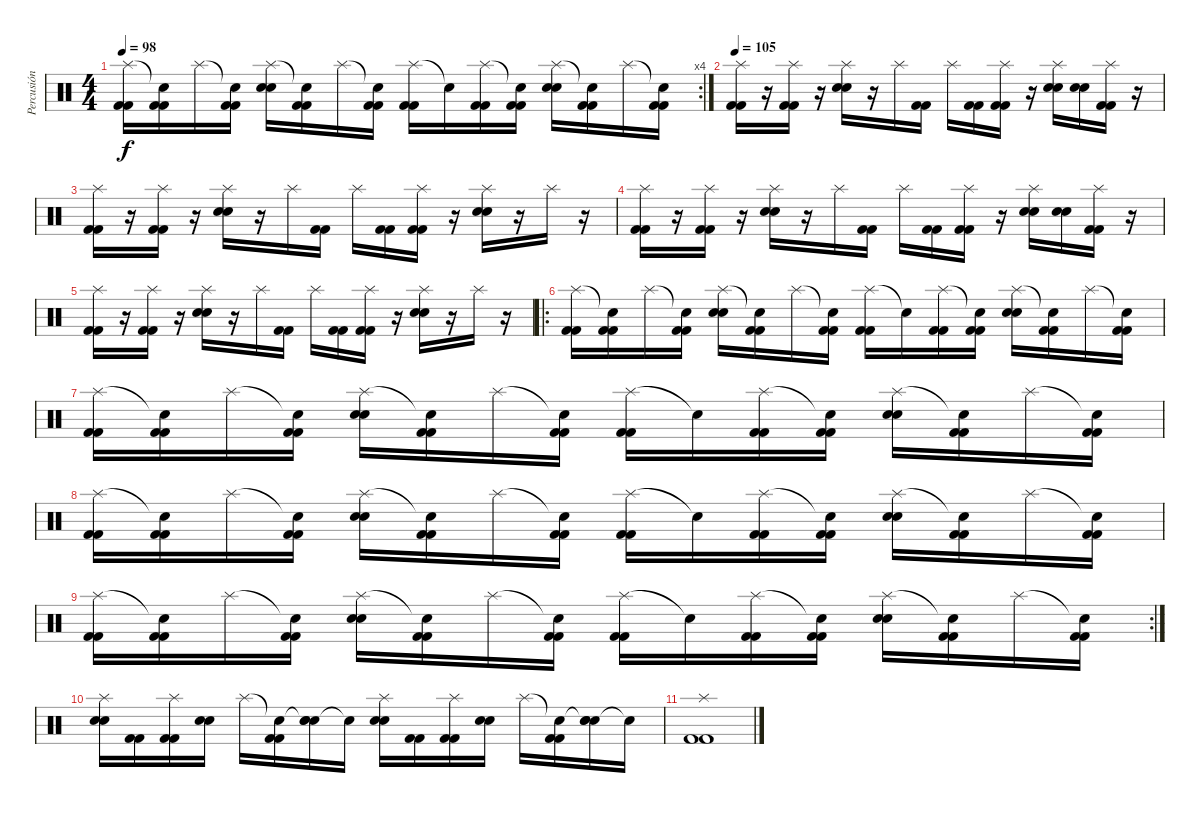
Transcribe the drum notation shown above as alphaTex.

\track ("Percusión" "Percusión") {instrument percussion}
\staff {score}
\articulation defaults
\rc 4
\ts (4 4)
\tempo 98
\clef neutral
\ks c
("Splash (hit)" "Kick (hit) 2" "Kick (hit) 2").16{dy f} ("Snare (hit)"{t} "Kick (hit) 2" "Kick (hit) 2").16 "Splash (hit)".16 ("Snare (hit)"{t} "Kick (hit) 2" "Kick (hit) 2").16 ("Splash (hit)" "Electric Snare (hit)" "Electric Snare (hit)").16 ("Snare (hit)"{t} "Kick (hit) 2" "Kick (hit) 2").16 "Splash (hit)".16 ("Snare (hit)"{t} "Kick (hit) 2" "Kick (hit) 2").16 ("Splash (hit)" "Kick (hit) 2" "Kick (hit) 2").16 "Snare (hit)"{t}.16 ("Splash (hit)" "Kick (hit) 2" "Kick (hit) 2").16 ("Snare (hit)"{t} "Kick (hit) 2" "Kick (hit) 2").16 ("Splash (hit)" "Electric Snare (hit)" "Electric Snare (hit)").16 ("Snare (hit)"{t} "Kick (hit) 2" "Kick (hit) 2").16 "Splash (hit)".16 ("Snare (hit)"{t} "Kick (hit) 2" "Kick (hit) 2").16 |
\tempo 105
("Splash (hit)" "Kick (hit) 2" "Kick (hit) 2").16 r.16 ("Splash (hit)" "Kick (hit) 2" "Kick (hit) 2").16 r.16 ("Splash (hit)" "Electric Snare (hit)" "Electric Snare (hit)").16 r.16 "Splash (hit)".16 ("Kick (hit) 2" "Kick (hit) 2").16 "Splash (hit)".16 ("Kick (hit) 2" "Kick (hit) 2").16 ("Splash (hit)" "Kick (hit) 2" "Kick (hit) 2").16 r.16 ("Splash (hit)" "Electric Snare (hit)" "Electric Snare (hit)").16 ("Electric Snare (hit)" "Electric Snare (hit)").16 ("Splash (hit)" "Kick (hit) 2" "Kick (hit) 2").16 r.16 |
("Splash (hit)" "Kick (hit) 2" "Kick (hit) 2").16 r.16 ("Splash (hit)" "Kick (hit) 2" "Kick (hit) 2").16 r.16 ("Splash (hit)" "Electric Snare (hit)" "Electric Snare (hit)").16 r.16 "Splash (hit)".16 ("Kick (hit) 2" "Kick (hit) 2").16 "Splash (hit)".16 ("Kick (hit) 2" "Kick (hit) 2").16 ("Splash (hit)" "Kick (hit) 2" "Kick (hit) 2").16 r.16 ("Splash (hit)" "Electric Snare (hit)" "Electric Snare (hit)").16 r.16 "Splash (hit)".16 r.16 |
("Splash (hit)" "Kick (hit) 2" "Kick (hit) 2").16 r.16 ("Splash (hit)" "Kick (hit) 2" "Kick (hit) 2").16 r.16 ("Splash (hit)" "Electric Snare (hit)" "Electric Snare (hit)").16 r.16 "Splash (hit)".16 ("Kick (hit) 2" "Kick (hit) 2").16 "Splash (hit)".16 ("Kick (hit) 2" "Kick (hit) 2").16 ("Splash (hit)" "Kick (hit) 2" "Kick (hit) 2").16 r.16 ("Splash (hit)" "Electric Snare (hit)" "Electric Snare (hit)").16 ("Electric Snare (hit)" "Electric Snare (hit)").16 ("Splash (hit)" "Kick (hit) 2" "Kick (hit) 2").16 r.16 |
("Splash (hit)" "Kick (hit) 2" "Kick (hit) 2").16 r.16 ("Splash (hit)" "Kick (hit) 2" "Kick (hit) 2").16 r.16 ("Splash (hit)" "Electric Snare (hit)" "Electric Snare (hit)").16 r.16 "Splash (hit)".16 ("Kick (hit) 2" "Kick (hit) 2").16 "Splash (hit)".16 ("Kick (hit) 2" "Kick (hit) 2").16 ("Splash (hit)" "Kick (hit) 2" "Kick (hit) 2").16 r.16 ("Splash (hit)" "Electric Snare (hit)" "Electric Snare (hit)").16 r.16 "Splash (hit)".16 r.16 |
\ro
("Splash (hit)" "Kick (hit) 2" "Kick (hit) 2").16 ("Snare (hit)"{t} "Kick (hit) 2" "Kick (hit) 2").16 "Splash (hit)".16 ("Snare (hit)"{t} "Kick (hit) 2" "Kick (hit) 2").16 ("Splash (hit)" "Electric Snare (hit)" "Electric Snare (hit)").16 ("Snare (hit)"{t} "Kick (hit) 2" "Kick (hit) 2").16 "Splash (hit)".16 ("Snare (hit)"{t} "Kick (hit) 2" "Kick (hit) 2").16 ("Splash (hit)" "Kick (hit) 2" "Kick (hit) 2").16 "Snare (hit)"{t}.16 ("Splash (hit)" "Kick (hit) 2" "Kick (hit) 2").16 ("Snare (hit)"{t} "Kick (hit) 2" "Kick (hit) 2").16 ("Splash (hit)" "Electric Snare (hit)" "Electric Snare (hit)").16 ("Snare (hit)"{t} "Kick (hit) 2" "Kick (hit) 2").16 "Splash (hit)".16 ("Snare (hit)"{t} "Kick (hit) 2" "Kick (hit) 2").16 |
("Splash (hit)" "Kick (hit) 2" "Kick (hit) 2").16 ("Snare (hit)"{t} "Kick (hit) 2" "Kick (hit) 2").16 "Splash (hit)".16 ("Snare (hit)"{t} "Kick (hit) 2" "Kick (hit) 2").16 ("Splash (hit)" "Electric Snare (hit)" "Electric Snare (hit)").16 ("Snare (hit)"{t} "Kick (hit) 2" "Kick (hit) 2").16 "Splash (hit)".16 ("Snare (hit)"{t} "Kick (hit) 2" "Kick (hit) 2").16 ("Splash (hit)" "Kick (hit) 2" "Kick (hit) 2").16 "Snare (hit)"{t}.16 ("Splash (hit)" "Kick (hit) 2" "Kick (hit) 2").16 ("Snare (hit)"{t} "Kick (hit) 2" "Kick (hit) 2").16 ("Splash (hit)" "Electric Snare (hit)" "Electric Snare (hit)").16 ("Snare (hit)"{t} "Kick (hit) 2" "Kick (hit) 2").16 "Splash (hit)".16 ("Snare (hit)"{t} "Kick (hit) 2" "Kick (hit) 2").16 |
("Splash (hit)" "Kick (hit) 2" "Kick (hit) 2").16 ("Snare (hit)"{t} "Kick (hit) 2" "Kick (hit) 2").16 "Splash (hit)".16 ("Snare (hit)"{t} "Kick (hit) 2" "Kick (hit) 2").16 ("Splash (hit)" "Electric Snare (hit)" "Electric Snare (hit)").16 ("Snare (hit)"{t} "Kick (hit) 2" "Kick (hit) 2").16 "Splash (hit)".16 ("Snare (hit)"{t} "Kick (hit) 2" "Kick (hit) 2").16 ("Splash (hit)" "Kick (hit) 2" "Kick (hit) 2").16 "Snare (hit)"{t}.16 ("Splash (hit)" "Kick (hit) 2" "Kick (hit) 2").16 ("Snare (hit)"{t} "Kick (hit) 2" "Kick (hit) 2").16 ("Splash (hit)" "Electric Snare (hit)" "Electric Snare (hit)").16 ("Snare (hit)"{t} "Kick (hit) 2" "Kick (hit) 2").16 "Splash (hit)".16 ("Snare (hit)"{t} "Kick (hit) 2" "Kick (hit) 2").16 |
\rc 2
("Splash (hit)" "Kick (hit) 2" "Kick (hit) 2").16 ("Snare (hit)"{t} "Kick (hit) 2" "Kick (hit) 2").16 "Splash (hit)".16 ("Snare (hit)"{t} "Kick (hit) 2" "Kick (hit) 2").16 ("Splash (hit)" "Electric Snare (hit)" "Electric Snare (hit)").16 ("Snare (hit)"{t} "Kick (hit) 2" "Kick (hit) 2").16 "Splash (hit)".16 ("Snare (hit)"{t} "Kick (hit) 2" "Kick (hit) 2").16 ("Splash (hit)" "Kick (hit) 2" "Kick (hit) 2").16 "Snare (hit)"{t}.16 ("Splash (hit)" "Kick (hit) 2" "Kick (hit) 2").16 ("Snare (hit)"{t} "Kick (hit) 2" "Kick (hit) 2").16 ("Splash (hit)" "Electric Snare (hit)" "Electric Snare (hit)").16 ("Snare (hit)"{t} "Kick (hit) 2" "Kick (hit) 2").16 "Splash (hit)".16 ("Snare (hit)"{t} "Kick (hit) 2" "Kick (hit) 2").16 |
("Splash (hit)" "Electric Snare (hit)" "Electric Snare (hit)").16 ("Kick (hit) 2" "Kick (hit) 2").16 ("Splash (hit)" "Kick (hit) 2" "Kick (hit) 2").16 ("Electric Snare (hit)" "Electric Snare (hit)").16 "Splash (hit)".16 ("Snare (hit)"{t} "Kick (hit) 2" "Kick (hit) 2").16 ("Snare (hit)"{t} "Electric Snare (hit)" "Electric Snare (hit)").16 "Snare (hit)"{t}.16 ("Splash (hit)" "Electric Snare (hit)" "Electric Snare (hit)").16 ("Kick (hit) 2" "Kick (hit) 2").16 ("Splash (hit)" "Kick (hit) 2" "Kick (hit) 2").16 ("Electric Snare (hit)" "Electric Snare (hit)").16 "Splash (hit)".16 ("Snare (hit)"{t} "Kick (hit) 2" "Kick (hit) 2").16 ("Snare (hit)"{t} "Electric Snare (hit)" "Electric Snare (hit)").16 "Snare (hit)"{t}.16 |
("Splash (hit)" "Kick (hit) 2" "Kick (hit) 2").1
